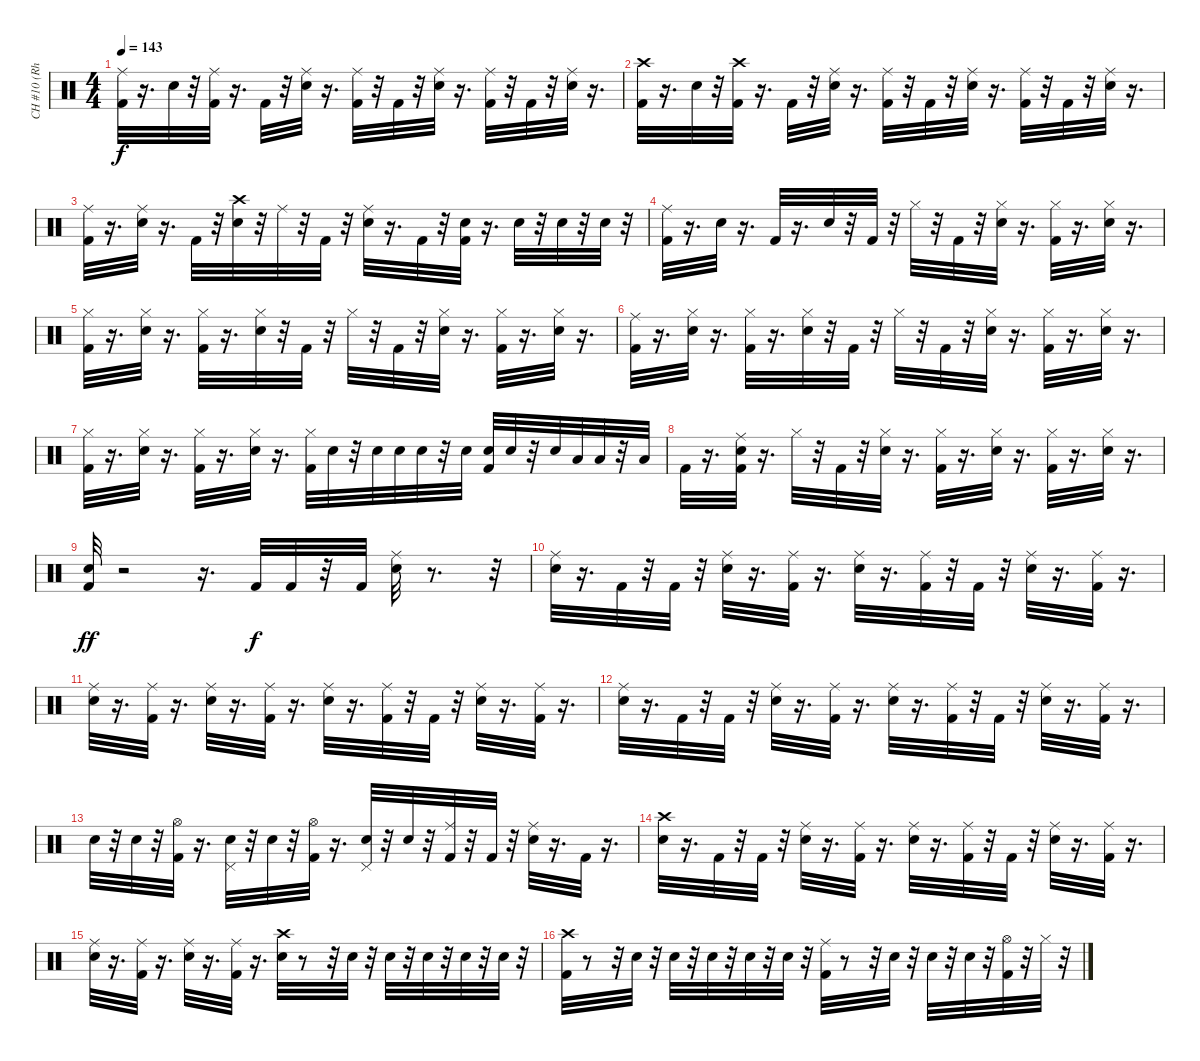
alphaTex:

\track ("CH #10 (Rhythm channel)" "CH #10 (Rh") {instrument percussion}
\staff {score}
\articulation defaults
\ts (4 4)
\tempo 143
\clef neutral
\ks c
("Ride (middle)" "Kick (hit) 2").32{dy f} r.16{d} "Electric Snare (hit)".32 r.32 ("Ride (middle)" "Kick (hit) 2").32 r.16{d} "Kick (hit) 2".32 r.32 ("Electric Snare (hit)" "Ride (middle)").32 r.16{d} ("Kick (hit) 2" "Ride (middle)").32 r.32 "Kick (hit) 2".32 r.32 ("Electric Snare (hit)" "Ride (middle)").32 r.16{d} ("Kick (hit) 2" "Ride (middle)").32 r.32 "Kick (hit) 2".32 r.32 ("Electric Snare (hit)" "Ride (middle)").32 r.16{d} |
("Kick (hit) 2" "Crash high (hit)").32 r.16{d} "Electric Snare (hit)".32 r.32 ("Kick (hit) 2" "Crash high (hit)").32 r.16{d} "Kick (hit) 2".32 r.32 ("Electric Snare (hit)" "Ride (middle)").32 r.16{d} ("Kick (hit) 2" "Ride (middle)").32 r.32 "Kick (hit) 2".32 r.32 ("Electric Snare (hit)" "Ride (middle)").32 r.16{d} ("Kick (hit) 2" "Ride (middle)").32 r.32 "Kick (hit) 2".32 r.32 ("Electric Snare (hit)" "Ride (middle)").32 r.16{d} |
("Kick (hit) 2" "Ride (middle)").32 r.16{d} ("Electric Snare (hit)" "Ride (middle)").32 r.16{d} "Kick (hit) 2".32 r.32 ("Crash high (hit)" "Electric Snare (hit)").32 r.32 "Ride (middle)".32 r.32 "Kick (hit) 2".32 r.32 ("Electric Snare (hit)" "Ride (middle)").32 r.16{d} "Kick (hit) 2".32 r.32 ("Kick (hit) 2" "Electric Snare (hit)").32 r.16{d} "Electric Snare (hit)".32 r.32 "Electric Snare (hit)".32 r.32 "Electric Snare (hit)".32 r.32 |
("Kick (hit) 2" "Ride (middle)").32 r.16{d} "Electric Snare (hit)".32 r.16{d} "Kick (hit) 2".32 r.16{d} "Electric Snare (hit)".32 r.32 "Kick (hit) 2".32 r.32 "Hi-Hat (closed)".32 r.32 "Kick (hit) 2".32 r.32 ("Electric Snare (hit)" "Hi-Hat (closed)").32 r.16{d} ("Kick (hit) 2" "Hi-Hat (closed)").32 r.16{d} ("Electric Snare (hit)" "Hi-Hat (closed)").32 r.16{d} |
("Kick (hit) 2" "Hi-Hat (closed)").32 r.16{d} ("Electric Snare (hit)" "Hi-Hat (closed)").32 r.16{d} ("Kick (hit) 2" "Hi-Hat (closed)").32 r.16{d} ("Electric Snare (hit)" "Hi-Hat (closed)").32 r.32 "Kick (hit) 2".32 r.32 "Hi-Hat (closed)".32 r.32 "Kick (hit) 2".32 r.32 ("Hi-Hat (closed)" "Electric Snare (hit)").32 r.16{d} ("Hi-Hat (closed)" "Kick (hit) 2").32 r.16{d} ("Hi-Hat (closed)" "Electric Snare (hit)").32 r.16{d} |
("Ride (middle)" "Kick (hit) 2").32 r.16{d} ("Hi-Hat (closed)" "Electric Snare (hit)").32 r.16{d} ("Hi-Hat (closed)" "Kick (hit) 2").32 r.16{d} ("Hi-Hat (closed)" "Electric Snare (hit)").32 r.32 "Kick (hit) 2".32 r.32 "Hi-Hat (closed)".32 r.32 "Kick (hit) 2".32 r.32 ("Hi-Hat (closed)" "Electric Snare (hit)").32 r.16{d} ("Hi-Hat (closed)" "Kick (hit) 2").32 r.16{d} ("Hi-Hat (closed)" "Electric Snare (hit)").32 r.16{d} |
("Kick (hit) 2" "Hi-Hat (closed)").32 r.16{d} ("Hi-Hat (closed)" "Electric Snare (hit)").32 r.16{d} ("Kick (hit) 2" "Hi-Hat (closed)").32 r.16{d} ("Hi-Hat (closed)" "Electric Snare (hit)").32 r.16{d} ("Kick (hit) 2" "Hi-Hat (closed)").32 "Electric Snare (hit)".32 r.32 "Electric Snare (hit)".32 "Electric Snare (hit)".32 "Electric Snare (hit)".32 r.32 "Electric Snare (hit)".32 ("Kick (hit) 2" "Electric Snare (hit)").32 "Electric Snare (hit)".32 r.32 "Electric Snare (hit)".32 "Low Tom (hit)".32 "Low Tom (hit)".32 r.32 "Low Tom (hit)".32 |
"Kick (hit) 2".32 r.16{d} ("Kick (hit) 2" "Electric Snare (hit)" "Ride (middle)").32 r.16{d} "Hi-Hat (closed)".32 r.32 "Kick (hit) 2".32 r.32 ("Hi-Hat (closed)" "Electric Snare (hit)").32 r.16{d} ("Hi-Hat (closed)" "Kick (hit) 2").32 r.16{d} ("Hi-Hat (closed)" "Electric Snare (hit)").32 r.16{d} ("Hi-Hat (closed)" "Kick (hit) 2").32 r.16{d} ("Hi-Hat (closed)" "Electric Snare (hit)").32 r.16{d} |
("Kick (hit) 2" "Electric Snare (hit)").32{dy ff} r.2 r.16{d} "Kick (hit) 2".32{dy f} "Kick (hit) 2".32 r.32 "Kick (hit) 2".32 ("Electric Snare (hit)" "Ride (middle)").32 r.8{d} r.32 |
("Electric Snare (hit)" "Ride (middle)").32 r.16{d} "Kick (hit) 2".32 r.32 "Kick (hit) 2".32 r.32 ("Electric Snare (hit)" "Ride (middle)").32 r.16{d} ("Kick (hit) 2" "Ride (middle)").32 r.16{d} ("Electric Snare (hit)" "Ride (middle)").32 r.16{d} ("Kick (hit) 2" "Ride (middle)").32 r.32 "Kick (hit) 2".32 r.32 ("Electric Snare (hit)" "Ride (middle)").32 r.16{d} ("Kick (hit) 2" "Ride (middle)").32 r.16{d} |
("Electric Snare (hit)" "Ride (middle)").32 r.16{d} ("Kick (hit) 2" "Ride (middle)").32 r.16{d} ("Electric Snare (hit)" "Ride (middle)").32 r.16{d} ("Kick (hit) 2" "Ride (middle)").32 r.16{d} ("Electric Snare (hit)" "Ride (middle)").32 r.16{d} ("Kick (hit) 2" "Ride (middle)").32 r.32 "Kick (hit) 2".32 r.32 ("Electric Snare (hit)" "Ride (middle)").32 r.16{d} ("Kick (hit) 2" "Ride (middle)").32 r.16{d} |
("Ride (middle)" "Electric Snare (hit)").32 r.16{d} "Kick (hit) 2".32 r.32 "Kick (hit) 2".32 r.32 ("Ride (middle)" "Electric Snare (hit)").32 r.16{d} ("Ride (middle)" "Kick (hit) 2").32 r.16{d} ("Ride (middle)" "Electric Snare (hit)").32 r.16{d} ("Ride (middle)" "Kick (hit) 2").32 r.32 "Kick (hit) 2".32 r.32 ("Ride (middle)" "Electric Snare (hit)").32 r.16{d} ("Ride (middle)" "Kick (hit) 2").32 r.16{d} |
"Electric Snare (hit)".32 r.32 "Electric Snare (hit)".32 r.32 ("Kick (hit) 2" "Hi-Hat (open)").32 r.16{d} ("Electric Snare (hit)" "Pedal Hi-Hat (hit)").32 r.32 "Electric Snare (hit)".32 r.32 ("Kick (hit) 2" "Hi-Hat (open)").32 r.16{d} ("Electric Snare (hit)" "Pedal Hi-Hat (hit)").32 r.32 "Electric Snare (hit)".32 r.32 ("Kick (hit) 2" "Ride (middle)").32 r.32 "Kick (hit) 2".32 r.32 ("Electric Snare (hit)" "Ride (middle)").32 r.16{d} "Kick (hit) 2".32 r.16{d} |
("Electric Snare (hit)" "Crash high (hit)").32 r.16{d} "Kick (hit) 2".32 r.32 "Kick (hit) 2".32 r.32 ("Electric Snare (hit)" "Ride (middle)").32 r.16{d} ("Kick (hit) 2" "Ride (middle)").32 r.16{d} ("Electric Snare (hit)" "Ride (middle)").32 r.16{d} ("Kick (hit) 2" "Ride (middle)").32 r.32 "Kick (hit) 2".32 r.32 ("Electric Snare (hit)" "Ride (middle)").32 r.16{d} ("Kick (hit) 2" "Ride (middle)").32 r.16{d} |
("Ride (middle)" "Electric Snare (hit)").32 r.16{d} ("Ride (middle)" "Kick (hit) 2").32 r.16{d} ("Ride (middle)" "Electric Snare (hit)").32 r.16{d} ("Ride (middle)" "Kick (hit) 2").32 r.16{d} ("Crash high (hit)" "Electric Snare (hit)").32 r.8 r.32 "Electric Snare (hit)".32 r.32 "Electric Snare (hit)".32 r.32 "Electric Snare (hit)".32 r.32 "Electric Snare (hit)".32 r.32 "Electric Snare (hit)".32 r.32 |
("Crash high (hit)" "Kick (hit) 2").32 r.8 r.32 "Electric Snare (hit)".32 r.32 "Electric Snare (hit)".32 r.32 "Electric Snare (hit)".32 r.32 "Electric Snare (hit)".32 r.32 "Electric Snare (hit)".32 r.32 ("Kick (hit) 2" "Ride (middle)").32 r.8 r.32 "Electric Snare (hit)".32 r.32 "Electric Snare (hit)".32 r.32 "Electric Snare (hit)".32 r.32 ("Kick (hit) 2" "Hi-Hat (open)").32 r.32 "Hi-Hat (closed)".32 r.32
